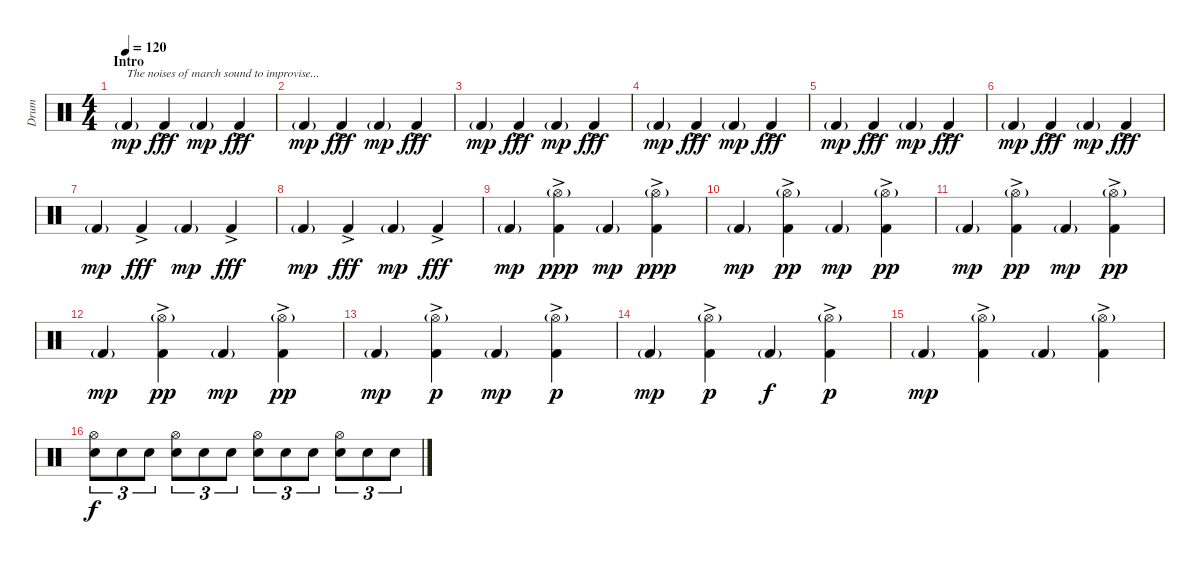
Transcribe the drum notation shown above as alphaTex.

\track ("Drum" "Drum") {instrument percussion}
\staff {score}
\articulation defaults
\ts (4 4)
\section ("" "Intro")
\tempo 120
\clef neutral
\ks c "Kick (hit) 2"{g}.4{txt "The noises of march sound to improvise..." dy mp} "Kick (hit) 2"{ac}.4{dy fff} "Kick (hit) 2"{g}.4{dy mp} "Kick (hit) 2"{ac}.4{dy fff}
|
"Kick (hit) 2"{g}.4{dy mp} "Kick (hit) 2"{ac}.4{dy fff} "Kick (hit) 2"{g}.4{dy mp} "Kick (hit) 2"{ac}.4{dy fff} |
"Kick (hit) 2"{g}.4{dy mp} "Kick (hit) 2"{ac}.4{dy fff} "Kick (hit) 2"{g}.4{dy mp} "Kick (hit) 2"{ac}.4{dy fff} |
"Kick (hit) 2"{g}.4{dy mp} "Kick (hit) 2"{ac}.4{dy fff} "Kick (hit) 2"{g}.4{dy mp} "Kick (hit) 2"{ac}.4{dy fff} |
"Kick (hit) 2"{g}.4{dy mp} "Kick (hit) 2"{ac}.4{dy fff} "Kick (hit) 2"{g}.4{dy mp} "Kick (hit) 2"{ac}.4{dy fff} |
"Kick (hit) 2"{g}.4{dy mp} "Kick (hit) 2"{ac}.4{dy fff} "Kick (hit) 2"{g}.4{dy mp} "Kick (hit) 2"{ac}.4{dy fff} |
"Kick (hit) 2"{g}.4{dy mp} "Kick (hit) 2"{ac}.4{dy fff} "Kick (hit) 2"{g}.4{dy mp} "Kick (hit) 2"{ac}.4{dy fff} |
"Kick (hit) 2"{g}.4{dy mp} "Kick (hit) 2"{ac}.4{dy fff} "Kick (hit) 2"{g}.4{dy mp} "Kick (hit) 2"{ac}.4{dy fff} |
"Kick (hit) 2"{g}.4{dy mp} ("Kick (hit) 2"{ac} "Hi-Hat (open)"{g}).4{dy ppp} "Kick (hit) 2"{g}.4{dy mp} ("Kick (hit) 2"{ac} "Hi-Hat (open)"{g}).4{dy ppp} |
"Kick (hit) 2"{g}.4{dy mp} ("Kick (hit) 2"{ac} "Hi-Hat (open)"{g}).4{dy pp} "Kick (hit) 2"{g}.4{dy mp} ("Kick (hit) 2"{ac} "Hi-Hat (open)"{g}).4{dy pp} |
"Kick (hit) 2"{g}.4{dy mp} ("Kick (hit) 2"{ac} "Hi-Hat (open)"{g}).4{dy pp} "Kick (hit) 2"{g}.4{dy mp} ("Kick (hit) 2"{ac} "Hi-Hat (open)"{g}).4{dy pp} |
"Kick (hit) 2"{g}.4{dy mp} ("Kick (hit) 2"{ac} "Hi-Hat (open)"{g}).4{dy pp} "Kick (hit) 2"{g}.4{dy mp} ("Kick (hit) 2"{ac} "Hi-Hat (open)"{g}).4{dy pp} |
"Kick (hit) 2"{g}.4{dy mp} ("Kick (hit) 2"{ac} "Hi-Hat (open)"{g}).4{dy p} "Kick (hit) 2"{g}.4{dy mp} ("Kick (hit) 2"{ac} "Hi-Hat (open)"{g}).4{dy p} |
"Kick (hit) 2"{g}.4{dy mp} ("Kick (hit) 2"{ac} "Hi-Hat (open)"{g}).4{dy p} "Kick (hit) 2"{g}.4{dy f} ("Kick (hit) 2"{ac} "Hi-Hat (open)"{g}).4{dy p} |
"Kick (hit) 2"{g}.4{dy mp} ("Kick (hit) 2"{ac} "Hi-Hat (open)"{g}).4 "Kick (hit) 2"{g}.4 ("Kick (hit) 2"{ac} "Hi-Hat (open)"{g}).4 |
("Hi-Hat (open)" "Electric Snare (hit)").8{tu (3 2) dy f} "Electric Snare (hit)".8{tu (3 2)} "Electric Snare (hit)".8{tu (3 2)} ("Hi-Hat (open)" "Electric Snare (hit)").8{tu (3 2)} "Electric Snare (hit)".8{tu (3 2)} "Electric Snare (hit)".8{tu (3 2)} ("Hi-Hat (open)" "Electric Snare (hit)").8{tu (3 2)} "Electric Snare (hit)".8{tu (3 2)} "Electric Snare (hit)".8{tu (3 2)} ("Hi-Hat (open)" "Electric Snare (hit)").8{tu (3 2)} "Electric Snare (hit)".8{tu (3 2)} "Electric Snare (hit)".8{tu (3 2)}
